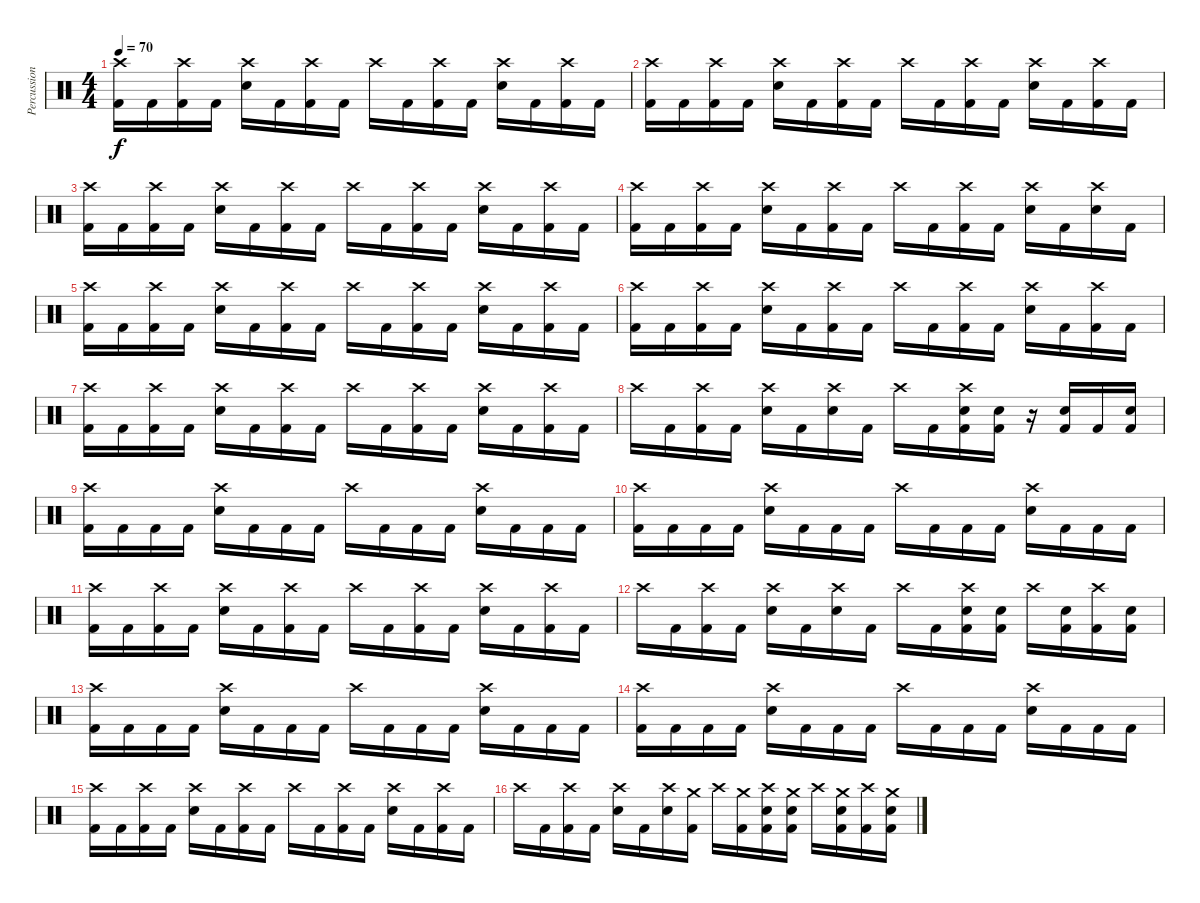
\track ("Percussion" "Percussion") {instrument percussion}
\staff {score}
\articulation defaults
\ts (4 4)
\tempo 70
\clef neutral
\ks c
("Crash high (hit)" "Kick (hit) 2").16{dy f} "Kick (hit) 2".16 ("Crash high (hit)" "Kick (hit) 2").16 "Kick (hit) 2".16 ("Crash high (hit)" "Snare (hit) 2").16 "Kick (hit) 2".16 ("Crash high (hit)" "Kick (hit) 2").16 "Kick (hit) 2".16 "Crash high (hit)".16 "Kick (hit) 2".16 ("Crash high (hit)" "Kick (hit) 2").16 "Kick (hit) 2".16 ("Crash high (hit)" "Snare (hit) 2").16 "Kick (hit) 2".16 ("Crash high (hit)" "Kick (hit) 2").16 "Kick (hit) 2".16 |
("Crash high (hit)" "Kick (hit) 2").16 "Kick (hit) 2".16 ("Crash high (hit)" "Kick (hit) 2").16 "Kick (hit) 2".16 ("Crash high (hit)" "Snare (hit) 2").16 "Kick (hit) 2".16 ("Crash high (hit)" "Kick (hit) 2").16 "Kick (hit) 2".16 "Crash high (hit)".16 "Kick (hit) 2".16 ("Crash high (hit)" "Kick (hit) 2").16 "Kick (hit) 2".16 ("Crash high (hit)" "Snare (hit) 2").16 "Kick (hit) 2".16 ("Crash high (hit)" "Kick (hit) 2").16 "Kick (hit) 2".16 |
("Crash high (hit)" "Kick (hit) 2").16 "Kick (hit) 2".16 ("Crash high (hit)" "Kick (hit) 2").16 "Kick (hit) 2".16 ("Crash high (hit)" "Snare (hit) 2").16 "Kick (hit) 2".16 ("Crash high (hit)" "Kick (hit) 2").16 "Kick (hit) 2".16 "Crash high (hit)".16 "Kick (hit) 2".16 ("Crash high (hit)" "Kick (hit) 2").16 "Kick (hit) 2".16 ("Crash high (hit)" "Snare (hit) 2").16 "Kick (hit) 2".16 ("Crash high (hit)" "Kick (hit) 2").16 "Kick (hit) 2".16 |
("Crash high (hit)" "Kick (hit) 2").16 "Kick (hit) 2".16 ("Crash high (hit)" "Kick (hit) 2").16 "Kick (hit) 2".16 ("Crash high (hit)" "Snare (hit) 2").16 "Kick (hit) 2".16 ("Crash high (hit)" "Kick (hit) 2").16 "Kick (hit) 2".16 "Crash high (hit)".16 "Kick (hit) 2".16 ("Crash high (hit)" "Kick (hit) 2").16 "Kick (hit) 2".16 ("Crash high (hit)" "Snare (hit) 2").16 "Kick (hit) 2".16 ("Crash high (hit)" "Snare (hit) 2").16 "Kick (hit) 2".16 |
("Crash high (hit)" "Kick (hit) 2").16 "Kick (hit) 2".16 ("Crash high (hit)" "Kick (hit) 2").16 "Kick (hit) 2".16 ("Crash high (hit)" "Snare (hit) 2").16 "Kick (hit) 2".16 ("Crash high (hit)" "Kick (hit) 2").16 "Kick (hit) 2".16 "Crash high (hit)".16 "Kick (hit) 2".16 ("Crash high (hit)" "Kick (hit) 2").16 "Kick (hit) 2".16 ("Crash high (hit)" "Snare (hit) 2").16 "Kick (hit) 2".16 ("Crash high (hit)" "Kick (hit) 2").16 "Kick (hit) 2".16 |
("Crash high (hit)" "Kick (hit) 2").16 "Kick (hit) 2".16 ("Crash high (hit)" "Kick (hit) 2").16 "Kick (hit) 2".16 ("Crash high (hit)" "Snare (hit) 2").16 "Kick (hit) 2".16 ("Crash high (hit)" "Kick (hit) 2").16 "Kick (hit) 2".16 "Crash high (hit)".16 "Kick (hit) 2".16 ("Crash high (hit)" "Kick (hit) 2").16 "Kick (hit) 2".16 ("Crash high (hit)" "Snare (hit) 2").16 "Kick (hit) 2".16 ("Crash high (hit)" "Kick (hit) 2").16 "Kick (hit) 2".16 |
("Crash high (hit)" "Kick (hit) 2").16 "Kick (hit) 2".16 ("Crash high (hit)" "Kick (hit) 2").16 "Kick (hit) 2".16 ("Crash high (hit)" "Snare (hit) 2").16 "Kick (hit) 2".16 ("Crash high (hit)" "Kick (hit) 2").16 "Kick (hit) 2".16 "Crash high (hit)".16 "Kick (hit) 2".16 ("Crash high (hit)" "Kick (hit) 2").16 "Kick (hit) 2".16 ("Crash high (hit)" "Snare (hit) 2").16 "Kick (hit) 2".16 ("Crash high (hit)" "Kick (hit) 2").16 "Kick (hit) 2".16 |
"Crash high (hit)".16 "Kick (hit) 2".16 ("Crash high (hit)" "Kick (hit) 2").16 "Kick (hit) 2".16 ("Crash high (hit)" "Snare (hit) 2").16 "Kick (hit) 2".16 ("Crash high (hit)" "Snare (hit) 2").16 "Kick (hit) 2".16 "Crash high (hit)".16 "Kick (hit) 2".16 ("Crash high (hit)" "Snare (hit) 2" "Kick (hit) 2").16 ("Snare (hit) 2" "Kick (hit) 2").16 r.16 ("Snare (hit) 2" "Kick (hit) 2").16 "Kick (hit) 2".16 ("Snare (hit) 2" "Kick (hit) 2").16 |
("Crash high (hit)" "Kick (hit) 2").16 "Kick (hit) 2".16 "Kick (hit) 2".16 "Kick (hit) 2".16 ("Crash high (hit)" "Snare (hit) 2").16 "Kick (hit) 2".16 "Kick (hit) 2".16 "Kick (hit) 2".16 "Crash high (hit)".16 "Kick (hit) 2".16 "Kick (hit) 2".16 "Kick (hit) 2".16 ("Crash high (hit)" "Snare (hit) 2").16 "Kick (hit) 2".16 "Kick (hit) 2".16 "Kick (hit) 2".16 |
("Crash high (hit)" "Kick (hit) 2").16 "Kick (hit) 2".16 "Kick (hit) 2".16 "Kick (hit) 2".16 ("Crash high (hit)" "Snare (hit) 2").16 "Kick (hit) 2".16 "Kick (hit) 2".16 "Kick (hit) 2".16 "Crash high (hit)".16 "Kick (hit) 2".16 "Kick (hit) 2".16 "Kick (hit) 2".16 ("Crash high (hit)" "Snare (hit) 2").16 "Kick (hit) 2".16 "Kick (hit) 2".16 "Kick (hit) 2".16 |
("Crash high (hit)" "Kick (hit) 2").16 "Kick (hit) 2".16 ("Crash high (hit)" "Kick (hit) 2").16 "Kick (hit) 2".16 ("Crash high (hit)" "Snare (hit) 2").16 "Kick (hit) 2".16 ("Crash high (hit)" "Kick (hit) 2").16 "Kick (hit) 2".16 "Crash high (hit)".16 "Kick (hit) 2".16 ("Crash high (hit)" "Kick (hit) 2").16 "Kick (hit) 2".16 ("Crash high (hit)" "Snare (hit) 2").16 "Kick (hit) 2".16 ("Crash high (hit)" "Kick (hit) 2").16 "Kick (hit) 2".16 |
"Crash high (hit)".16 "Kick (hit) 2".16 ("Crash high (hit)" "Kick (hit) 2").16 "Kick (hit) 2".16 ("Crash high (hit)" "Snare (hit) 2").16 "Kick (hit) 2".16 ("Crash high (hit)" "Snare (hit) 2").16 "Kick (hit) 2".16 "Crash high (hit)".16 "Kick (hit) 2".16 ("Crash high (hit)" "Snare (hit) 2" "Kick (hit) 2").16 ("Snare (hit) 2" "Kick (hit) 2").16 "Crash high (hit)".16 ("Snare (hit) 2" "Kick (hit) 2").16 ("Crash high (hit)" "Kick (hit) 2").16 ("Snare (hit) 2" "Kick (hit) 2").16 |
("Crash high (hit)" "Kick (hit) 2").16 "Kick (hit) 2".16 "Kick (hit) 2".16 "Kick (hit) 2".16 ("Crash high (hit)" "Snare (hit) 2").16 "Kick (hit) 2".16 "Kick (hit) 2".16 "Kick (hit) 2".16 "Crash high (hit)".16 "Kick (hit) 2".16 "Kick (hit) 2".16 "Kick (hit) 2".16 ("Crash high (hit)" "Snare (hit) 2").16 "Kick (hit) 2".16 "Kick (hit) 2".16 "Kick (hit) 2".16 |
("Crash high (hit)" "Kick (hit) 2").16 "Kick (hit) 2".16 "Kick (hit) 2".16 "Kick (hit) 2".16 ("Crash high (hit)" "Snare (hit) 2").16 "Kick (hit) 2".16 "Kick (hit) 2".16 "Kick (hit) 2".16 "Crash high (hit)".16 "Kick (hit) 2".16 "Kick (hit) 2".16 "Kick (hit) 2".16 ("Crash high (hit)" "Snare (hit) 2").16 "Kick (hit) 2".16 "Kick (hit) 2".16 "Kick (hit) 2".16 |
("Crash high (hit)" "Kick (hit) 2").16 "Kick (hit) 2".16 ("Crash high (hit)" "Kick (hit) 2").16 "Kick (hit) 2".16 ("Crash high (hit)" "Snare (hit) 2").16 "Kick (hit) 2".16 ("Crash high (hit)" "Kick (hit) 2").16 "Kick (hit) 2".16 "Crash high (hit)".16 "Kick (hit) 2".16 ("Crash high (hit)" "Kick (hit) 2").16 "Kick (hit) 2".16 ("Crash high (hit)" "Snare (hit) 2").16 "Kick (hit) 2".16 ("Crash high (hit)" "Kick (hit) 2").16 "Kick (hit) 2".16 |
"Crash high (hit)".16 "Kick (hit) 2".16 ("Crash high (hit)" "Kick (hit) 2").16 "Kick (hit) 2".16 ("Crash high (hit)" "Snare (hit) 2").16 "Kick (hit) 2".16 ("Crash high (hit)" "Snare (hit) 2").16 ("Crash medium (hit)" "Kick (hit) 2").16 "Crash high (hit)".16 ("Crash medium (hit)" "Kick (hit) 2").16 ("Crash high (hit)" "Snare (hit) 2" "Kick (hit) 2").16 ("Crash medium (hit)" "Snare (hit) 2" "Kick (hit) 2").16 "Crash high (hit)".16 ("Crash medium (hit)" "Snare (hit) 2" "Kick (hit) 2").16 ("Crash high (hit)" "Kick (hit) 2").16 ("Crash medium (hit)" "Snare (hit) 2" "Kick (hit) 2").16
